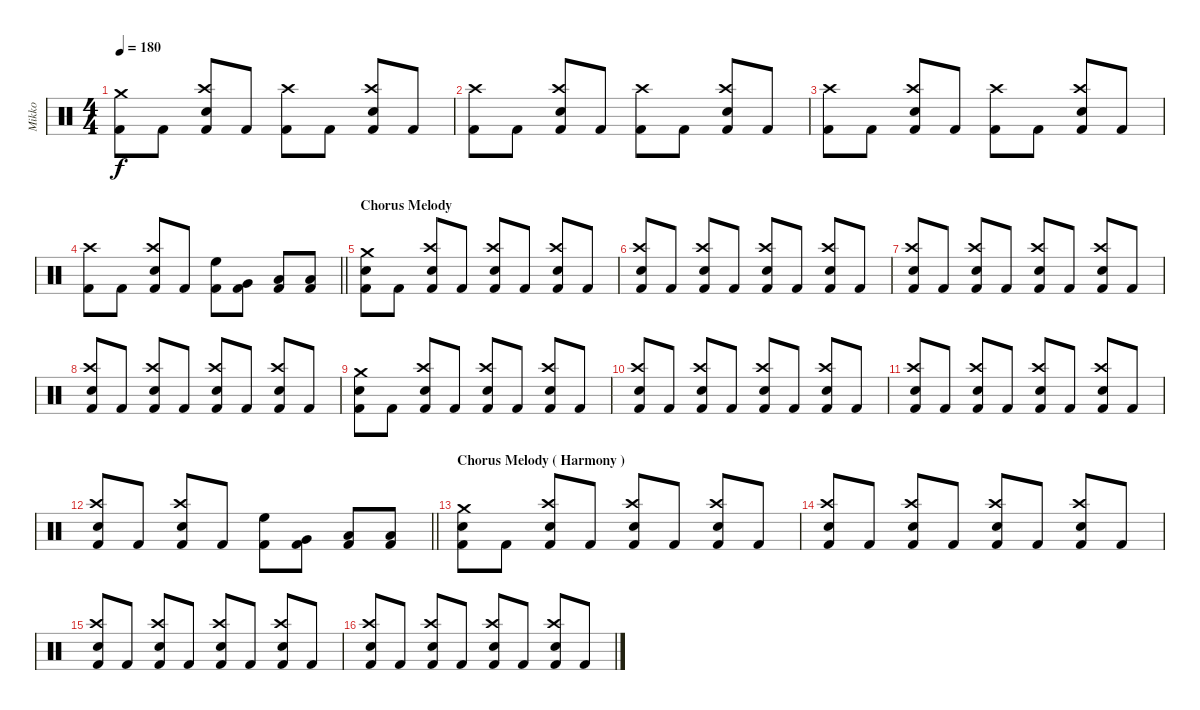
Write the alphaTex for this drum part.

\track ("Mikko" "Mikko") {instrument percussion}
\staff {score}
\articulation defaults
\ts (4 4)
\tempo 180
\clef neutral
\ks c
("Crash medium (hit)" "Kick (hit) 2").8{dy f} "Kick (hit) 2".8 ("Crash high (hit)" "Electric Snare (hit)" "Kick (hit) 2").8 "Kick (hit) 2".8 ("Crash high (hit)" "Kick (hit) 2").8 "Kick (hit) 2".8 ("Crash high (hit)" "Electric Snare (hit)" "Kick (hit) 2").8 "Kick (hit) 2".8 |
("Crash high (hit)" "Kick (hit) 2").8 "Kick (hit) 2".8 ("Crash high (hit)" "Electric Snare (hit)" "Kick (hit) 2").8 "Kick (hit) 2".8 ("Crash high (hit)" "Kick (hit) 2").8 "Kick (hit) 2".8 ("Crash high (hit)" "Electric Snare (hit)" "Kick (hit) 2").8 "Kick (hit) 2".8 |
("Crash high (hit)" "Kick (hit) 2").8 "Kick (hit) 2".8 ("Crash high (hit)" "Electric Snare (hit)" "Kick (hit) 2").8 "Kick (hit) 2".8 ("Crash high (hit)" "Kick (hit) 2").8 "Kick (hit) 2".8 ("Crash high (hit)" "Electric Snare (hit)" "Kick (hit) 2").8 "Kick (hit) 2".8 |
\barLineRight lightlight
("Crash high (hit)" "Kick (hit) 2").8 "Kick (hit) 2".8 ("Crash high (hit)" "Electric Snare (hit)" "Kick (hit) 2").8 "Kick (hit) 2".8 ("High Floor Tom (hit)" "Kick (hit) 2").8 ("Very Low Tom (hit)" "Kick (hit) 2").8 ("Low Floor Tom (hit)" "Kick (hit) 2").8 ("Low Tom (hit)" "Kick (hit) 2").8 |
\section ("" "Chorus Melody ")
("Crash medium (hit)" "Electric Snare (hit)" "Kick (hit) 2").8 "Kick (hit) 2".8 ("Crash high (hit)" "Electric Snare (hit)" "Kick (hit) 2").8 "Kick (hit) 2".8 ("Crash high (hit)" "Electric Snare (hit)" "Kick (hit) 2").8 "Kick (hit) 2".8 ("Crash high (hit)" "Electric Snare (hit)" "Kick (hit) 2").8 "Kick (hit) 2".8 |
("Crash high (hit)" "Electric Snare (hit)" "Kick (hit) 2").8 "Kick (hit) 2".8 ("Crash high (hit)" "Electric Snare (hit)" "Kick (hit) 2").8 "Kick (hit) 2".8 ("Crash high (hit)" "Electric Snare (hit)" "Kick (hit) 2").8 "Kick (hit) 2".8 ("Crash high (hit)" "Electric Snare (hit)" "Kick (hit) 2").8 "Kick (hit) 2".8 |
("Crash high (hit)" "Electric Snare (hit)" "Kick (hit) 2").8 "Kick (hit) 2".8 ("Crash high (hit)" "Electric Snare (hit)" "Kick (hit) 2").8 "Kick (hit) 2".8 ("Crash high (hit)" "Electric Snare (hit)" "Kick (hit) 2").8 "Kick (hit) 2".8 ("Crash high (hit)" "Electric Snare (hit)" "Kick (hit) 2").8 "Kick (hit) 2".8 |
("Crash high (hit)" "Electric Snare (hit)" "Kick (hit) 2").8 "Kick (hit) 2".8 ("Crash high (hit)" "Electric Snare (hit)" "Kick (hit) 2").8 "Kick (hit) 2".8 ("Crash high (hit)" "Electric Snare (hit)" "Kick (hit) 2").8 "Kick (hit) 2".8 ("Crash high (hit)" "Electric Snare (hit)" "Kick (hit) 2").8 "Kick (hit) 2".8 |
("Crash medium (hit)" "Electric Snare (hit)" "Kick (hit) 2").8 "Kick (hit) 2".8 ("Crash high (hit)" "Electric Snare (hit)" "Kick (hit) 2").8 "Kick (hit) 2".8 ("Crash high (hit)" "Electric Snare (hit)" "Kick (hit) 2").8 "Kick (hit) 2".8 ("Crash high (hit)" "Electric Snare (hit)" "Kick (hit) 2").8 "Kick (hit) 2".8 |
("Crash high (hit)" "Electric Snare (hit)" "Kick (hit) 2").8 "Kick (hit) 2".8 ("Crash high (hit)" "Electric Snare (hit)" "Kick (hit) 2").8 "Kick (hit) 2".8 ("Crash high (hit)" "Electric Snare (hit)" "Kick (hit) 2").8 "Kick (hit) 2".8 ("Crash high (hit)" "Electric Snare (hit)" "Kick (hit) 2").8 "Kick (hit) 2".8 |
("Crash high (hit)" "Electric Snare (hit)" "Kick (hit) 2").8 "Kick (hit) 2".8 ("Crash high (hit)" "Electric Snare (hit)" "Kick (hit) 2").8 "Kick (hit) 2".8 ("Crash high (hit)" "Electric Snare (hit)" "Kick (hit) 2").8 "Kick (hit) 2".8 ("Crash high (hit)" "Electric Snare (hit)" "Kick (hit) 2").8 "Kick (hit) 2".8 |
\barLineRight lightlight
("Crash high (hit)" "Electric Snare (hit)" "Kick (hit) 2").8 "Kick (hit) 2".8 ("Crash high (hit)" "Electric Snare (hit)" "Kick (hit) 2").8 "Kick (hit) 2".8 ("High Floor Tom (hit)" "Kick (hit) 2").8 ("Very Low Tom (hit)" "Kick (hit) 2").8 ("Low Floor Tom (hit)" "Kick (hit) 2").8 ("Low Tom (hit)" "Kick (hit) 2").8 |
\section ("" "Chorus Melody ( Harmony )")
("Crash medium (hit)" "Electric Snare (hit)" "Kick (hit) 2").8 "Kick (hit) 2".8 ("Crash high (hit)" "Electric Snare (hit)" "Kick (hit) 2").8 "Kick (hit) 2".8 ("Crash high (hit)" "Electric Snare (hit)" "Kick (hit) 2").8 "Kick (hit) 2".8 ("Crash high (hit)" "Electric Snare (hit)" "Kick (hit) 2").8 "Kick (hit) 2".8 |
("Crash high (hit)" "Electric Snare (hit)" "Kick (hit) 2").8 "Kick (hit) 2".8 ("Crash high (hit)" "Electric Snare (hit)" "Kick (hit) 2").8 "Kick (hit) 2".8 ("Crash high (hit)" "Electric Snare (hit)" "Kick (hit) 2").8 "Kick (hit) 2".8 ("Crash high (hit)" "Electric Snare (hit)" "Kick (hit) 2").8 "Kick (hit) 2".8 |
("Crash high (hit)" "Electric Snare (hit)" "Kick (hit) 2").8 "Kick (hit) 2".8 ("Crash high (hit)" "Electric Snare (hit)" "Kick (hit) 2").8 "Kick (hit) 2".8 ("Crash high (hit)" "Electric Snare (hit)" "Kick (hit) 2").8 "Kick (hit) 2".8 ("Crash high (hit)" "Electric Snare (hit)" "Kick (hit) 2").8 "Kick (hit) 2".8 |
("Crash high (hit)" "Electric Snare (hit)" "Kick (hit) 2").8 "Kick (hit) 2".8 ("Crash high (hit)" "Electric Snare (hit)" "Kick (hit) 2").8 "Kick (hit) 2".8 ("Crash high (hit)" "Electric Snare (hit)" "Kick (hit) 2").8 "Kick (hit) 2".8 ("Crash high (hit)" "Electric Snare (hit)" "Kick (hit) 2").8 "Kick (hit) 2".8
